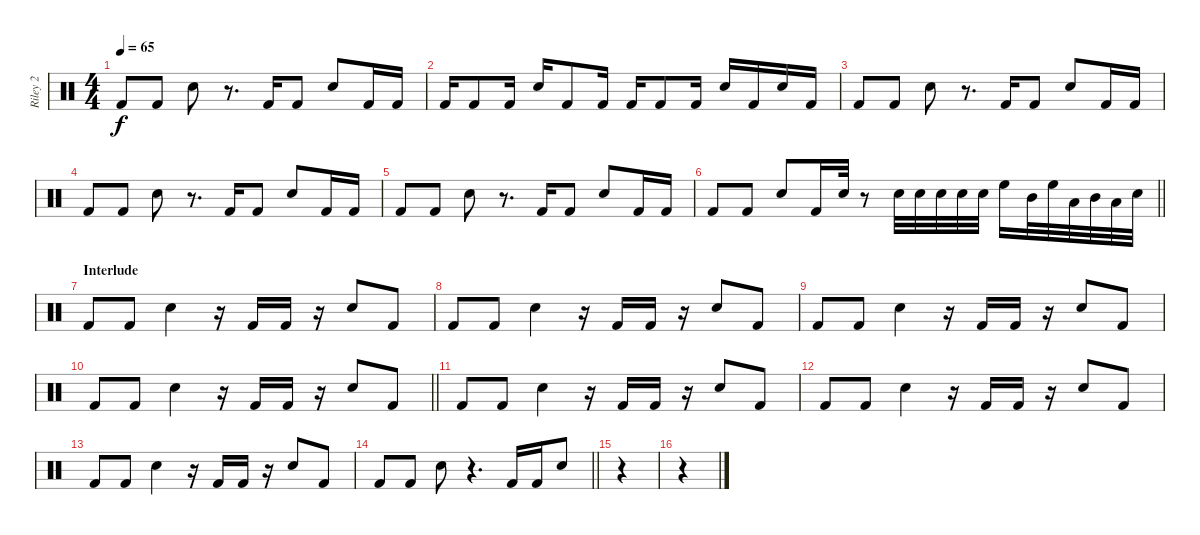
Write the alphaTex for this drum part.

\track ("Riley 2" "Riley 2") {instrument percussion}
\staff {score}
\articulation defaults
\ts (4 4)
\tempo 65
\clef neutral
\ks c "Kick (hit) 2".8{dy f} "Kick (hit) 2".8 "Electric Snare (hit)".8
r.8{d} "Kick (hit) 2".16 "Kick (hit) 2".8 "Electric Snare (hit)".8 "Kick (hit) 2".16 "Kick (hit) 2".16 |
"Kick (hit) 2".16 "Kick (hit) 2".8 "Kick (hit) 2".16 "Electric Snare (hit)".16 "Kick (hit) 2".8 "Kick (hit) 2".16 "Kick (hit) 2".16 "Kick (hit) 2".8 "Kick (hit) 2".16 "Electric Snare (hit)".16 "Kick (hit) 2".16 "Electric Snare (hit)".16 "Kick (hit) 2".16 |
"Kick (hit) 2".8 "Kick (hit) 2".8 "Electric Snare (hit)".8 r.8{d} "Kick (hit) 2".16 "Kick (hit) 2".8 "Electric Snare (hit)".8 "Kick (hit) 2".16 "Kick (hit) 2".16 |
"Kick (hit) 2".8 "Kick (hit) 2".8 "Electric Snare (hit)".8 r.8{d} "Kick (hit) 2".16 "Kick (hit) 2".8 "Electric Snare (hit)".8 "Kick (hit) 2".16 "Kick (hit) 2".16 |
"Kick (hit) 2".8 "Kick (hit) 2".8 "Electric Snare (hit)".8 r.8{d} "Kick (hit) 2".16 "Kick (hit) 2".8 "Electric Snare (hit)".8 "Kick (hit) 2".16 "Kick (hit) 2".16 |
\barLineRight lightlight "Kick (hit) 2".8 "Kick (hit) 2".8 "Electric Snare (hit)".8 "Kick (hit) 2".16 "Electric Snare (hit)".32
r.8 "Electric Snare (hit)".32 "Electric Snare (hit)".32 "Electric Snare (hit)".32 "Electric Snare (hit)".32 "Electric Snare (hit)".32 "High Floor Tom (hit)".16 "Mid Tom (hit)".32 "High Floor Tom (hit)".32 "Low Tom (hit)".32 "Mid Tom (hit)".32 "Low Tom (hit)".32 "Electric Snare (hit)".32 |
\section ("" "Interlude")
"Kick (hit) 2".8 "Kick (hit) 2".8 "Electric Snare (hit)".4 r.16 "Kick (hit) 2".16 "Kick (hit) 2".16 r.16 "Electric Snare (hit)".8 "Kick (hit) 2".8 |
"Kick (hit) 2".8 "Kick (hit) 2".8 "Electric Snare (hit)".4 r.16 "Kick (hit) 2".16 "Kick (hit) 2".16 r.16 "Electric Snare (hit)".8 "Kick (hit) 2".8 |
"Kick (hit) 2".8 "Kick (hit) 2".8 "Electric Snare (hit)".4 r.16 "Kick (hit) 2".16 "Kick (hit) 2".16 r.16 "Electric Snare (hit)".8 "Kick (hit) 2".8 |
\barLineRight lightlight "Kick (hit) 2".8 "Kick (hit) 2".8 "Electric Snare (hit)".4
r.16 "Kick (hit) 2".16 "Kick (hit) 2".16 r.16 "Electric Snare (hit)".8 "Kick (hit) 2".8 |
\section ("" "")
"Kick (hit) 2".8 "Kick (hit) 2".8 "Electric Snare (hit)".4 r.16 "Kick (hit) 2".16 "Kick (hit) 2".16 r.16 "Electric Snare (hit)".8 "Kick (hit) 2".8 |
"Kick (hit) 2".8 "Kick (hit) 2".8 "Electric Snare (hit)".4 r.16 "Kick (hit) 2".16 "Kick (hit) 2".16 r.16 "Electric Snare (hit)".8 "Kick (hit) 2".8 |
"Kick (hit) 2".8 "Kick (hit) 2".8 "Electric Snare (hit)".4 r.16 "Kick (hit) 2".16 "Kick (hit) 2".16 r.16 "Electric Snare (hit)".8 "Kick (hit) 2".8 |
\barLineRight lightlight "Kick (hit) 2".8 "Kick (hit) 2".8 "Electric Snare (hit)".8
r.4{d} "Kick (hit) 2".16 "Kick (hit) 2".16 "Electric Snare (hit)".8 |
r.4 |
r.4
